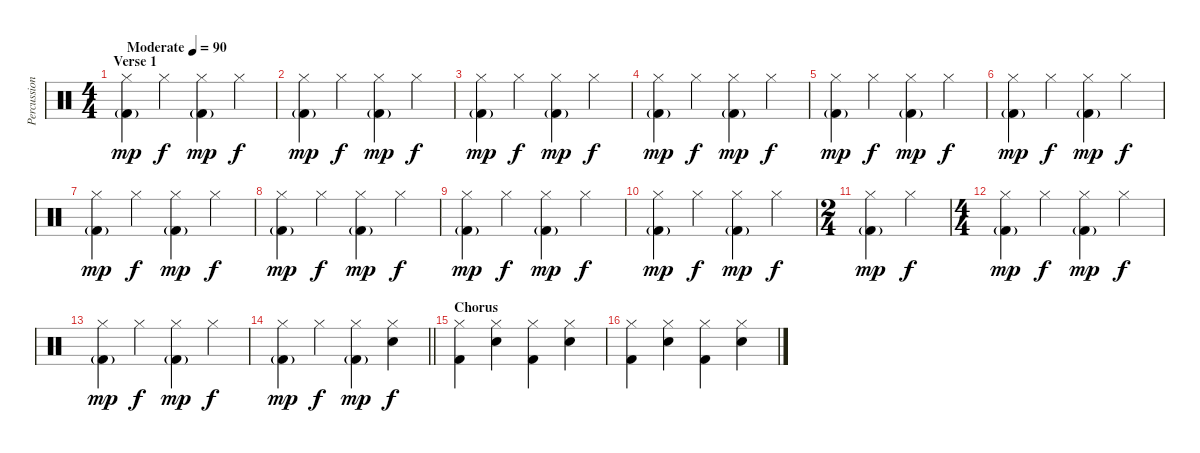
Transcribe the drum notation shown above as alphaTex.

\track ("Percussion" "Percussion") {instrument percussion}
\staff {score}
\articulation defaults
\ts (4 4)
\section ("" "Verse 1")
\tempo (90 "Moderate")
\clef neutral
\ks c
("Hi-Hat (closed)" "Kick (hit) 2"{g}).4{dy mp} "Hi-Hat (closed)".4{dy f} ("Hi-Hat (closed)" "Kick (hit) 2"{g}).4{dy mp} "Hi-Hat (closed)".4{dy f} |
("Hi-Hat (closed)" "Kick (hit) 2"{g}).4{dy mp} "Hi-Hat (closed)".4{dy f} ("Hi-Hat (closed)" "Kick (hit) 2"{g}).4{dy mp} "Hi-Hat (closed)".4{dy f} |
("Hi-Hat (closed)" "Kick (hit) 2"{g}).4{dy mp} "Hi-Hat (closed)".4{dy f} ("Hi-Hat (closed)" "Kick (hit) 2"{g}).4{dy mp} "Hi-Hat (closed)".4{dy f} |
("Hi-Hat (closed)" "Kick (hit) 2"{g}).4{dy mp} "Hi-Hat (closed)".4{dy f} ("Hi-Hat (closed)" "Kick (hit) 2"{g}).4{dy mp} "Hi-Hat (closed)".4{dy f} |
("Hi-Hat (closed)" "Kick (hit) 2"{g}).4{dy mp} "Hi-Hat (closed)".4{dy f} ("Hi-Hat (closed)" "Kick (hit) 2"{g}).4{dy mp} "Hi-Hat (closed)".4{dy f} |
("Hi-Hat (closed)" "Kick (hit) 2"{g}).4{dy mp} "Hi-Hat (closed)".4{dy f} ("Hi-Hat (closed)" "Kick (hit) 2"{g}).4{dy mp} "Hi-Hat (closed)".4{dy f} |
("Hi-Hat (closed)" "Kick (hit) 2"{g}).4{dy mp} "Hi-Hat (closed)".4{dy f} ("Hi-Hat (closed)" "Kick (hit) 2"{g}).4{dy mp} "Hi-Hat (closed)".4{dy f} |
("Hi-Hat (closed)" "Kick (hit) 2"{g}).4{dy mp} "Hi-Hat (closed)".4{dy f} ("Hi-Hat (closed)" "Kick (hit) 2"{g}).4{dy mp} "Hi-Hat (closed)".4{dy f} |
("Hi-Hat (closed)" "Kick (hit) 2"{g}).4{dy mp} "Hi-Hat (closed)".4{dy f} ("Hi-Hat (closed)" "Kick (hit) 2"{g}).4{dy mp} "Hi-Hat (closed)".4{dy f} |
("Hi-Hat (closed)" "Kick (hit) 2"{g}).4{dy mp} "Hi-Hat (closed)".4{dy f} ("Hi-Hat (closed)" "Kick (hit) 2"{g}).4{dy mp} "Hi-Hat (closed)".4{dy f} |
\ts (2 4)
("Hi-Hat (closed)" "Kick (hit) 2"{g}).4{dy mp} "Hi-Hat (closed)".4{dy f} |
\ts (4 4)
("Hi-Hat (closed)" "Kick (hit) 2"{g}).4{dy mp} "Hi-Hat (closed)".4{dy f} ("Hi-Hat (closed)" "Kick (hit) 2"{g}).4{dy mp} "Hi-Hat (closed)".4{dy f} |
("Hi-Hat (closed)" "Kick (hit) 2"{g}).4{dy mp} "Hi-Hat (closed)".4{dy f} ("Hi-Hat (closed)" "Kick (hit) 2"{g}).4{dy mp} "Hi-Hat (closed)".4{dy f} |
\barLineRight lightlight
("Hi-Hat (closed)" "Kick (hit) 2"{g}).4{dy mp} "Hi-Hat (closed)".4{dy f} ("Hi-Hat (closed)" "Kick (hit) 2"{g}).4{dy mp} ("Hi-Hat (closed)" "Snare (hit) 2").4{dy f} |
\section ("" "Chorus")
("Hi-Hat (closed)" "Kick (hit) 2").4 ("Hi-Hat (closed)" "Snare (hit) 2").4 ("Hi-Hat (closed)" "Kick (hit) 2").4 ("Hi-Hat (closed)" "Snare (hit) 2").4 |
("Hi-Hat (closed)" "Kick (hit) 2").4 ("Hi-Hat (closed)" "Snare (hit) 2").4 ("Hi-Hat (closed)" "Kick (hit) 2").4 ("Hi-Hat (closed)" "Snare (hit) 2").4
